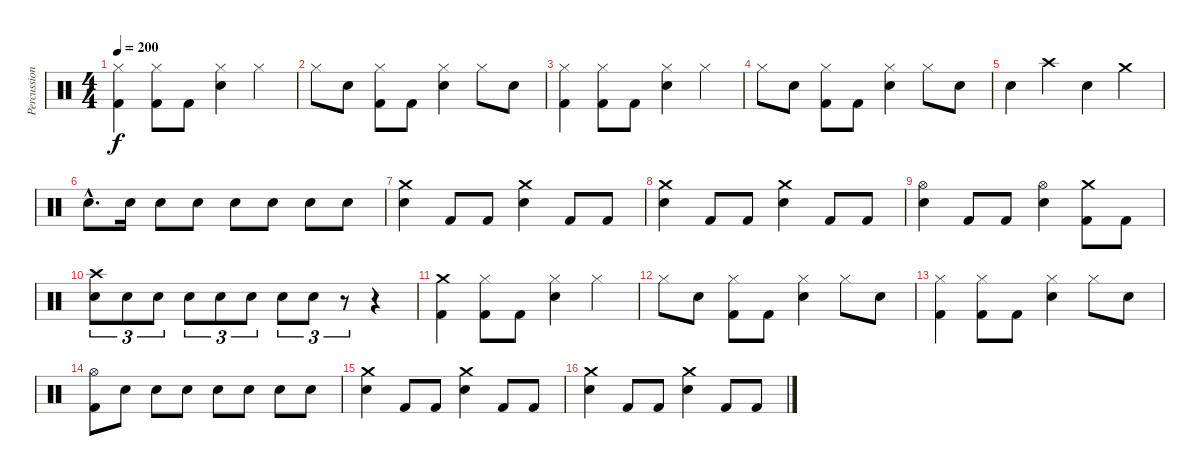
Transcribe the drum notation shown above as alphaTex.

\track ("Percussion" "Percussion") {instrument percussion}
\staff {score}
\articulation defaults
\ts (4 4)
\tempo 200
\clef neutral
\ks c
("Hi-Hat (closed)" "Kick (hit) 2").4{dy f} ("Hi-Hat (closed)" "Kick (hit) 2").8 "Kick (hit) 2".8 ("Hi-Hat (closed)" "Electric Snare (hit)").4 "Hi-Hat (closed)".4 |
"Hi-Hat (closed)".8 "Electric Snare (hit)".8 ("Hi-Hat (closed)" "Kick (hit) 2").8 "Kick (hit) 2".8 ("Hi-Hat (closed)" "Electric Snare (hit)").4 "Hi-Hat (closed)".8 "Electric Snare (hit)".8 |
("Hi-Hat (closed)" "Kick (hit) 2").4 ("Hi-Hat (closed)" "Kick (hit) 2").8 "Kick (hit) 2".8 ("Hi-Hat (closed)" "Electric Snare (hit)").4 "Hi-Hat (closed)".4 |
"Hi-Hat (closed)".8 "Electric Snare (hit)".8 ("Hi-Hat (closed)" "Kick (hit) 2").8 "Kick (hit) 2".8 ("Hi-Hat (closed)" "Electric Snare (hit)").4 "Hi-Hat (closed)".8 "Electric Snare (hit)".8 |
"Electric Snare (hit)".4 "Crash high (hit)".4 "Electric Snare (hit)".4 "Crash medium (hit)".4 |
"Electric Snare (hit)"{hac}.8{d} "Electric Snare (hit)".16 "Electric Snare (hit)".8 "Electric Snare (hit)".8 "Electric Snare (hit)".8 "Electric Snare (hit)".8 "Electric Snare (hit)".8 "Electric Snare (hit)".8 |
("Crash medium (hit)" "Electric Snare (hit)").4 "Kick (hit) 2".8 "Kick (hit) 2".8 ("Crash medium (hit)" "Electric Snare (hit)").4 "Kick (hit) 2".8 "Kick (hit) 2".8 |
("Crash medium (hit)" "Electric Snare (hit)").4 "Kick (hit) 2".8 "Kick (hit) 2".8 ("Crash medium (hit)" "Electric Snare (hit)").4 "Kick (hit) 2".8 "Kick (hit) 2".8 |
("Hi-Hat (open)" "Electric Snare (hit)").4 "Kick (hit) 2".8 "Kick (hit) 2".8 ("Hi-Hat (open)" "Electric Snare (hit)").4 ("Crash medium (hit)" "Kick (hit) 2").8 "Kick (hit) 2".8 |
("Crash high (hit)" "Electric Snare (hit)").8{tu (3 2)} "Electric Snare (hit)".8{tu (3 2)} "Electric Snare (hit)".8{tu (3 2)} "Electric Snare (hit)".8{tu (3 2)} "Electric Snare (hit)".8{tu (3 2)} "Electric Snare (hit)".8{tu (3 2)} "Electric Snare (hit)".8{tu (3 2)} "Electric Snare (hit)".8{tu (3 2)} r.8{tu (3 2)} r.4 |
("Crash medium (hit)" "Kick (hit) 2").4 ("Hi-Hat (closed)" "Kick (hit) 2").8 "Kick (hit) 2".8 ("Hi-Hat (closed)" "Electric Snare (hit)").4 "Hi-Hat (closed)".4 |
"Hi-Hat (closed)".8 "Electric Snare (hit)".8 ("Hi-Hat (closed)" "Kick (hit) 2").8 "Kick (hit) 2".8 ("Hi-Hat (closed)" "Electric Snare (hit)").4 "Hi-Hat (closed)".8 "Electric Snare (hit)".8 |
("Hi-Hat (closed)" "Kick (hit) 2").4 ("Hi-Hat (closed)" "Kick (hit) 2").8 "Kick (hit) 2".8 ("Hi-Hat (closed)" "Electric Snare (hit)").4 "Hi-Hat (closed)".8 "Electric Snare (hit)".8 |
("Hi-Hat (open)" "Kick (hit) 2").8 "Electric Snare (hit)".8 "Electric Snare (hit)".8 "Electric Snare (hit)".8 "Electric Snare (hit)".8 "Electric Snare (hit)".8 "Electric Snare (hit)".8 "Electric Snare (hit)".8 |
("Crash medium (hit)" "Electric Snare (hit)").4 "Kick (hit) 2".8 "Kick (hit) 2".8 ("Crash medium (hit)" "Electric Snare (hit)").4 "Kick (hit) 2".8 "Kick (hit) 2".8 |
("Crash medium (hit)" "Electric Snare (hit)").4 "Kick (hit) 2".8 "Kick (hit) 2".8 ("Crash medium (hit)" "Electric Snare (hit)").4 "Kick (hit) 2".8 "Kick (hit) 2".8
